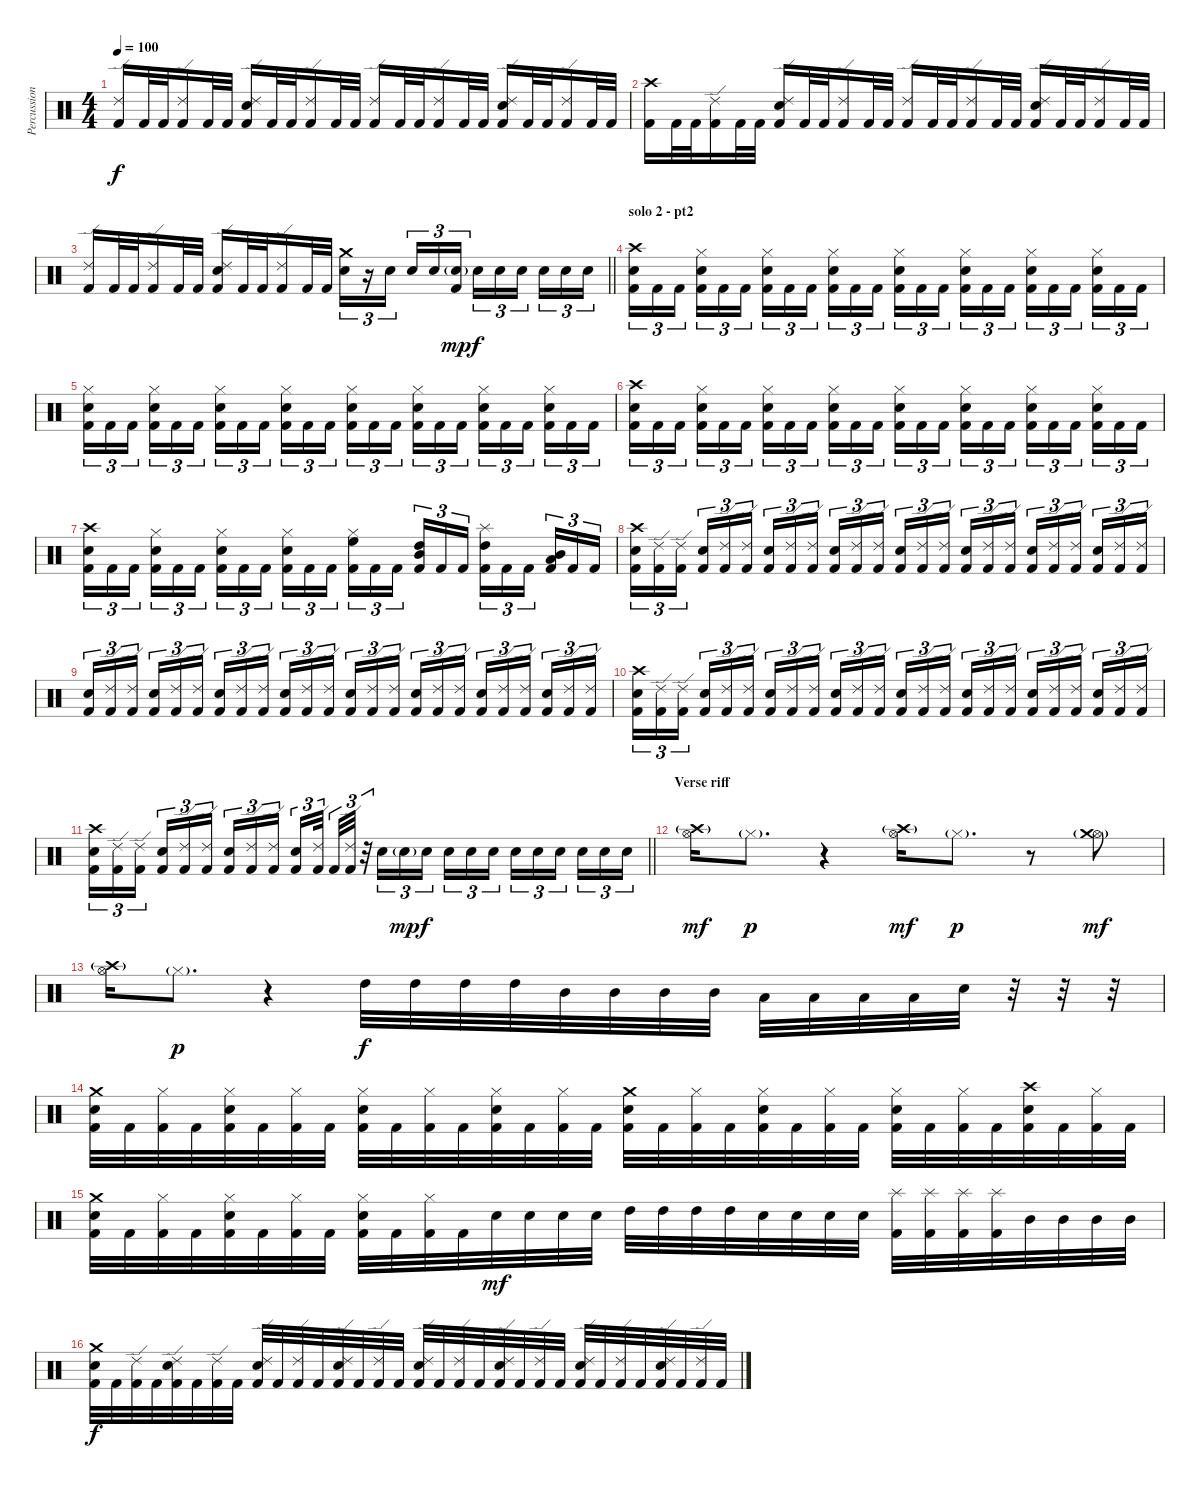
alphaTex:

\track ("Percussion" "Percussion") {instrument percussion}
\staff {score}
\articulation defaults
\ts (4 4)
\tempo 100
\clef neutral
\ks c
("Ride (edge) 2" "Kick (hit) 2").16{dy f} "Kick (hit) 2".32 "Kick (hit) 2".32 ("Ride (edge) 2" "Kick (hit) 2").16 "Kick (hit) 2".32 "Kick (hit) 2".32 ("Ride (edge) 2" "Electric Snare (hit)" "Kick (hit) 2").16 "Kick (hit) 2".32 "Kick (hit) 2".32 ("Ride (edge) 2" "Kick (hit) 2").16 "Kick (hit) 2".32 "Kick (hit) 2".32 ("Ride (edge) 2" "Kick (hit) 2").16 "Kick (hit) 2".32 "Kick (hit) 2".32 ("Ride (edge) 2" "Kick (hit) 2").16 "Kick (hit) 2".32 "Kick (hit) 2".32 ("Ride (edge) 2" "Electric Snare (hit)" "Kick (hit) 2").16 "Kick (hit) 2".32 "Kick (hit) 2".32 ("Ride (edge) 2" "Kick (hit) 2").16 "Kick (hit) 2".32 "Kick (hit) 2".32 |
("Crash high (hit)" "Kick (hit) 2").16 "Kick (hit) 2".32 "Kick (hit) 2".32 ("Ride (edge) 2" "Kick (hit) 2").16 "Kick (hit) 2".32 "Kick (hit) 2".32 ("Ride (edge) 2" "Electric Snare (hit)" "Kick (hit) 2").16 "Kick (hit) 2".32 "Kick (hit) 2".32 ("Ride (edge) 2" "Kick (hit) 2").16 "Kick (hit) 2".32 "Kick (hit) 2".32 ("Ride (edge) 2" "Kick (hit) 2").16 "Kick (hit) 2".32 "Kick (hit) 2".32 ("Ride (edge) 2" "Kick (hit) 2").16 "Kick (hit) 2".32 "Kick (hit) 2".32 ("Ride (edge) 2" "Electric Snare (hit)" "Kick (hit) 2").16 "Kick (hit) 2".32 "Kick (hit) 2".32 ("Ride (edge) 2" "Kick (hit) 2").16 "Kick (hit) 2".32 "Kick (hit) 2".32 |
\barLineRight lightlight
("Ride (edge) 2" "Kick (hit) 2").16 "Kick (hit) 2".32 "Kick (hit) 2".32 ("Ride (edge) 2" "Kick (hit) 2").16 "Kick (hit) 2".32 "Kick (hit) 2".32 ("Ride (edge) 2" "Electric Snare (hit)" "Kick (hit) 2").16 "Kick (hit) 2".32 "Kick (hit) 2".32 ("Ride (edge) 2" "Kick (hit) 2").16 "Kick (hit) 2".32 "Kick (hit) 2".32 ("Crash medium (hit)" "Electric Snare (hit)").16{tu (3 2)} r.16{tu (3 2)} "Electric Snare (hit)".16{tu (3 2) beam splitsecondary} "Electric Snare (hit)".16{tu (3 2)} "Electric Snare (hit)".16{tu (3 2)} ("Electric Snare (hit)"{g} "Kick (hit) 2").16{tu (3 2) dy mp} "Electric Snare (hit)".16{tu (3 2) dy f} "Electric Snare (hit)".16{tu (3 2)} "Electric Snare (hit)".16{tu (3 2) beam splitsecondary} "Electric Snare (hit)".16{tu (3 2)} "Electric Snare (hit)".16{tu (3 2)} "Electric Snare (hit)".16{tu (3 2)} |
\section ("" "solo 2 - pt2")
("Crash high (hit)" "Electric Snare (hit)" "Kick (hit) 2").16{tu (3 2)} "Kick (hit) 2".16{tu (3 2)} "Kick (hit) 2".16{tu (3 2) beam splitsecondary} ("Hi-Hat (closed)" "Electric Snare (hit)" "Kick (hit) 2").16{tu (3 2)} "Kick (hit) 2".16{tu (3 2)} "Kick (hit) 2".16{tu (3 2)} ("Hi-Hat (closed)" "Electric Snare (hit)" "Kick (hit) 2").16{tu (3 2)} "Kick (hit) 2".16{tu (3 2)} "Kick (hit) 2".16{tu (3 2) beam splitsecondary} ("Hi-Hat (closed)" "Electric Snare (hit)" "Kick (hit) 2").16{tu (3 2)} "Kick (hit) 2".16{tu (3 2)} "Kick (hit) 2".16{tu (3 2)} ("Hi-Hat (closed)" "Electric Snare (hit)" "Kick (hit) 2").16{tu (3 2)} "Kick (hit) 2".16{tu (3 2)} "Kick (hit) 2".16{tu (3 2) beam splitsecondary} ("Hi-Hat (closed)" "Electric Snare (hit)" "Kick (hit) 2").16{tu (3 2)} "Kick (hit) 2".16{tu (3 2)} "Kick (hit) 2".16{tu (3 2)} ("Hi-Hat (closed)" "Electric Snare (hit)" "Kick (hit) 2").16{tu (3 2)} "Kick (hit) 2".16{tu (3 2)} "Kick (hit) 2".16{tu (3 2) beam splitsecondary} ("Hi-Hat (closed)" "Electric Snare (hit)" "Kick (hit) 2").16{tu (3 2)} "Kick (hit) 2".16{tu (3 2)} "Kick (hit) 2".16{tu (3 2)} |
("Hi-Hat (closed)" "Electric Snare (hit)" "Kick (hit) 2").16{tu (3 2)} "Kick (hit) 2".16{tu (3 2)} "Kick (hit) 2".16{tu (3 2) beam splitsecondary} ("Hi-Hat (closed)" "Electric Snare (hit)" "Kick (hit) 2").16{tu (3 2)} "Kick (hit) 2".16{tu (3 2)} "Kick (hit) 2".16{tu (3 2)} ("Hi-Hat (closed)" "Electric Snare (hit)" "Kick (hit) 2").16{tu (3 2)} "Kick (hit) 2".16{tu (3 2)} "Kick (hit) 2".16{tu (3 2) beam splitsecondary} ("Hi-Hat (closed)" "Electric Snare (hit)" "Kick (hit) 2").16{tu (3 2)} "Kick (hit) 2".16{tu (3 2)} "Kick (hit) 2".16{tu (3 2)} ("Hi-Hat (closed)" "Electric Snare (hit)" "Kick (hit) 2").16{tu (3 2)} "Kick (hit) 2".16{tu (3 2)} "Kick (hit) 2".16{tu (3 2) beam splitsecondary} ("Hi-Hat (closed)" "Electric Snare (hit)" "Kick (hit) 2").16{tu (3 2)} "Kick (hit) 2".16{tu (3 2)} "Kick (hit) 2".16{tu (3 2)} ("Hi-Hat (closed)" "Electric Snare (hit)" "Kick (hit) 2").16{tu (3 2)} "Kick (hit) 2".16{tu (3 2)} "Kick (hit) 2".16{tu (3 2) beam splitsecondary} ("Hi-Hat (closed)" "Electric Snare (hit)" "Kick (hit) 2").16{tu (3 2)} "Kick (hit) 2".16{tu (3 2)} "Kick (hit) 2".16{tu (3 2)} |
("Crash high (hit)" "Electric Snare (hit)" "Kick (hit) 2").16{tu (3 2)} "Kick (hit) 2".16{tu (3 2)} "Kick (hit) 2".16{tu (3 2) beam splitsecondary} ("Hi-Hat (closed)" "Electric Snare (hit)" "Kick (hit) 2").16{tu (3 2)} "Kick (hit) 2".16{tu (3 2)} "Kick (hit) 2".16{tu (3 2)} ("Hi-Hat (closed)" "Electric Snare (hit)" "Kick (hit) 2").16{tu (3 2)} "Kick (hit) 2".16{tu (3 2)} "Kick (hit) 2".16{tu (3 2) beam splitsecondary} ("Hi-Hat (closed)" "Electric Snare (hit)" "Kick (hit) 2").16{tu (3 2)} "Kick (hit) 2".16{tu (3 2)} "Kick (hit) 2".16{tu (3 2)} ("Hi-Hat (closed)" "Electric Snare (hit)" "Kick (hit) 2").16{tu (3 2)} "Kick (hit) 2".16{tu (3 2)} "Kick (hit) 2".16{tu (3 2) beam splitsecondary} ("Hi-Hat (closed)" "Electric Snare (hit)" "Kick (hit) 2").16{tu (3 2)} "Kick (hit) 2".16{tu (3 2)} "Kick (hit) 2".16{tu (3 2)} ("Hi-Hat (closed)" "Electric Snare (hit)" "Kick (hit) 2").16{tu (3 2)} "Kick (hit) 2".16{tu (3 2)} "Kick (hit) 2".16{tu (3 2) beam splitsecondary} ("Hi-Hat (closed)" "Electric Snare (hit)" "Kick (hit) 2").16{tu (3 2)} "Kick (hit) 2".16{tu (3 2)} "Kick (hit) 2".16{tu (3 2)} |
("Crash high (hit)" "Electric Snare (hit)" "Kick (hit) 2").16{tu (3 2)} "Kick (hit) 2".16{tu (3 2)} "Kick (hit) 2".16{tu (3 2) beam splitsecondary} ("Hi-Hat (closed)" "Electric Snare (hit)" "Kick (hit) 2").16{tu (3 2)} "Kick (hit) 2".16{tu (3 2)} "Kick (hit) 2".16{tu (3 2)} ("Hi-Hat (closed)" "Electric Snare (hit)" "Kick (hit) 2").16{tu (3 2)} "Kick (hit) 2".16{tu (3 2)} "Kick (hit) 2".16{tu (3 2) beam splitsecondary} ("Hi-Hat (closed)" "Electric Snare (hit)" "Kick (hit) 2").16{tu (3 2)} "Kick (hit) 2".16{tu (3 2)} "Kick (hit) 2".16{tu (3 2)} ("Hi-Hat (closed)" "High Floor Tom (hit)" "Kick (hit) 2").16{tu (3 2)} "Kick (hit) 2".16{tu (3 2)} "Kick (hit) 2".16{tu (3 2) beam splitsecondary} ("High Tom (hit)" "Mid Tom (hit)" "Kick (hit) 2").16{tu (3 2)} "Kick (hit) 2".16{tu (3 2)} "Kick (hit) 2".16{tu (3 2)} ("Splash (hit)" "High Tom (hit)" "Kick (hit) 2").16{tu (3 2)} "Kick (hit) 2".16{tu (3 2)} "Kick (hit) 2".16{tu (3 2) beam splitsecondary} ("Low Tom (hit)" "Mid Tom (hit)" "Kick (hit) 2").16{tu (3 2)} "Kick (hit) 2".16{tu (3 2)} "Kick (hit) 2".16{tu (3 2)} |
("Crash high (hit)" "Electric Snare (hit)" "Kick (hit) 2").16{tu (3 2)} ("Ride (edge) 2" "Kick (hit) 2").16{tu (3 2)} ("Ride (edge) 2" "Kick (hit) 2").16{tu (3 2) beam splitsecondary} ("Electric Snare (hit)" "Kick (hit) 2").16{tu (3 2)} ("Ride (edge) 2" "Kick (hit) 2").16{tu (3 2)} ("Ride (edge) 2" "Kick (hit) 2").16{tu (3 2)} ("Electric Snare (hit)" "Kick (hit) 2").16{tu (3 2)} ("Ride (edge) 2" "Kick (hit) 2").16{tu (3 2)} ("Ride (edge) 2" "Kick (hit) 2").16{tu (3 2) beam splitsecondary} ("Electric Snare (hit)" "Kick (hit) 2").16{tu (3 2)} ("Ride (edge) 2" "Kick (hit) 2").16{tu (3 2)} ("Ride (edge) 2" "Kick (hit) 2").16{tu (3 2)} ("Electric Snare (hit)" "Kick (hit) 2").16{tu (3 2)} ("Ride (edge) 2" "Kick (hit) 2").16{tu (3 2)} ("Ride (edge) 2" "Kick (hit) 2").16{tu (3 2) beam splitsecondary} ("Electric Snare (hit)" "Kick (hit) 2").16{tu (3 2)} ("Ride (edge) 2" "Kick (hit) 2").16{tu (3 2)} ("Ride (edge) 2" "Kick (hit) 2").16{tu (3 2)} ("Electric Snare (hit)" "Kick (hit) 2").16{tu (3 2)} ("Ride (edge) 2" "Kick (hit) 2").16{tu (3 2)} ("Ride (edge) 2" "Kick (hit) 2").16{tu (3 2) beam splitsecondary} ("Electric Snare (hit)" "Kick (hit) 2").16{tu (3 2)} ("Ride (edge) 2" "Kick (hit) 2").16{tu (3 2)} ("Ride (edge) 2" "Kick (hit) 2").16{tu (3 2)} |
("Electric Snare (hit)" "Kick (hit) 2").16{tu (3 2)} ("Ride (edge) 2" "Kick (hit) 2").16{tu (3 2)} ("Ride (edge) 2" "Kick (hit) 2").16{tu (3 2) beam splitsecondary} ("Electric Snare (hit)" "Kick (hit) 2").16{tu (3 2)} ("Ride (edge) 2" "Kick (hit) 2").16{tu (3 2)} ("Ride (edge) 2" "Kick (hit) 2").16{tu (3 2)} ("Electric Snare (hit)" "Kick (hit) 2").16{tu (3 2)} ("Ride (edge) 2" "Kick (hit) 2").16{tu (3 2)} ("Ride (edge) 2" "Kick (hit) 2").16{tu (3 2) beam splitsecondary} ("Electric Snare (hit)" "Kick (hit) 2").16{tu (3 2)} ("Ride (edge) 2" "Kick (hit) 2").16{tu (3 2)} ("Ride (edge) 2" "Kick (hit) 2").16{tu (3 2)} ("Electric Snare (hit)" "Kick (hit) 2").16{tu (3 2)} ("Ride (edge) 2" "Kick (hit) 2").16{tu (3 2)} ("Ride (edge) 2" "Kick (hit) 2").16{tu (3 2) beam splitsecondary} ("Electric Snare (hit)" "Kick (hit) 2").16{tu (3 2)} ("Ride (edge) 2" "Kick (hit) 2").16{tu (3 2)} ("Ride (edge) 2" "Kick (hit) 2").16{tu (3 2)} ("Electric Snare (hit)" "Kick (hit) 2").16{tu (3 2)} ("Ride (edge) 2" "Kick (hit) 2").16{tu (3 2)} ("Ride (edge) 2" "Kick (hit) 2").16{tu (3 2) beam splitsecondary} ("Electric Snare (hit)" "Kick (hit) 2").16{tu (3 2)} ("Ride (edge) 2" "Kick (hit) 2").16{tu (3 2)} ("Ride (edge) 2" "Kick (hit) 2").16{tu (3 2)} |
("Crash high (hit)" "Electric Snare (hit)" "Kick (hit) 2").16{tu (3 2)} ("Ride (edge) 2" "Kick (hit) 2").16{tu (3 2)} ("Ride (edge) 2" "Kick (hit) 2").16{tu (3 2) beam splitsecondary} ("Electric Snare (hit)" "Kick (hit) 2").16{tu (3 2)} ("Ride (edge) 2" "Kick (hit) 2").16{tu (3 2)} ("Ride (edge) 2" "Kick (hit) 2").16{tu (3 2)} ("Electric Snare (hit)" "Kick (hit) 2").16{tu (3 2)} ("Ride (edge) 2" "Kick (hit) 2").16{tu (3 2)} ("Ride (edge) 2" "Kick (hit) 2").16{tu (3 2) beam splitsecondary} ("Electric Snare (hit)" "Kick (hit) 2").16{tu (3 2)} ("Ride (edge) 2" "Kick (hit) 2").16{tu (3 2)} ("Ride (edge) 2" "Kick (hit) 2").16{tu (3 2)} ("Electric Snare (hit)" "Kick (hit) 2").16{tu (3 2)} ("Ride (edge) 2" "Kick (hit) 2").16{tu (3 2)} ("Ride (edge) 2" "Kick (hit) 2").16{tu (3 2) beam splitsecondary} ("Electric Snare (hit)" "Kick (hit) 2").16{tu (3 2)} ("Ride (edge) 2" "Kick (hit) 2").16{tu (3 2)} ("Ride (edge) 2" "Kick (hit) 2").16{tu (3 2)} ("Electric Snare (hit)" "Kick (hit) 2").16{tu (3 2)} ("Ride (edge) 2" "Kick (hit) 2").16{tu (3 2)} ("Ride (edge) 2" "Kick (hit) 2").16{tu (3 2) beam splitsecondary} ("Electric Snare (hit)" "Kick (hit) 2").16{tu (3 2)} ("Ride (edge) 2" "Kick (hit) 2").16{tu (3 2)} ("Ride (edge) 2" "Kick (hit) 2").16{tu (3 2)} |
\barLineRight lightlight
("Crash high (hit)" "Electric Snare (hit)" "Kick (hit) 2").16{tu (3 2)} ("Ride (edge) 2" "Kick (hit) 2").16{tu (3 2)} ("Ride (edge) 2" "Kick (hit) 2").16{tu (3 2) beam splitsecondary} ("Electric Snare (hit)" "Kick (hit) 2").16{tu (3 2)} ("Ride (edge) 2" "Kick (hit) 2").16{tu (3 2)} ("Ride (edge) 2" "Kick (hit) 2").16{tu (3 2)} ("Electric Snare (hit)" "Kick (hit) 2").16{tu (3 2)} ("Ride (edge) 2" "Kick (hit) 2").16{tu (3 2)} ("Ride (edge) 2" "Kick (hit) 2").16{tu (3 2) beam splitsecondary} ("Electric Snare (hit)" "Kick (hit) 2").16{tu (3 2)} ("Ride (edge) 2" "Kick (hit) 2").32{tu (3 2) beam splitsecondary} "Kick (hit) 2".32{tu (3 2)} ("Ride (edge) 2" "Kick (hit) 2").32{tu (3 2)} r.32{tu (3 2)} "Electric Snare (hit)".16{tu (3 2)} "Electric Snare (hit)"{g}.16{tu (3 2) dy mp} "Electric Snare (hit)".16{tu (3 2) dy f beam splitsecondary} "Electric Snare (hit)".16{tu (3 2)} "Electric Snare (hit)".16{tu (3 2)} "Electric Snare (hit)".16{tu (3 2)} "Electric Snare (hit)".16{tu (3 2)} "Electric Snare (hit)".16{tu (3 2)} "Electric Snare (hit)".16{tu (3 2) beam splitsecondary} "Electric Snare (hit)".16{tu (3 2)} "Electric Snare (hit)".16{tu (3 2)} "Electric Snare (hit)".16{tu (3 2)} |
\section ("" "Verse riff")
("Crash high (hit)"{g} "Hi-Hat (open)").16{dy mf} "Hi-Hat (closed)"{g}.8{d dy p} r.4 ("Crash high (hit)"{g} "Hi-Hat (open)").16{dy mf} "Hi-Hat (closed)"{g}.8{d dy p} r.8 ("Hi-Hat (open)" "Crash medium (hit)"{g}).8{dy mf} |
("Crash high (hit)"{g} "Hi-Hat (open)").16 "Hi-Hat (closed)"{g}.8{d dy p} r.4 "High Tom (hit)".32{dy f} "High Tom (hit)".32 "High Tom (hit)".32 "High Tom (hit)".32 "Mid Tom (hit)".32 "Mid Tom (hit)".32 "Mid Tom (hit)".32 "Mid Tom (hit)".32 "Low Tom (hit)".32 "Low Tom (hit)".32 "Low Tom (hit)".32 "Low Tom (hit)".32 "Electric Snare (hit)".32 r.32 r.32 r.32 |
("Crash medium (hit)" "Electric Snare (hit)" "Kick (hit) 2").32 "Kick (hit) 2".32 ("Hi-Hat (closed)" "Kick (hit) 2").32 "Kick (hit) 2".32 ("Hi-Hat (closed)" "Electric Snare (hit)" "Kick (hit) 2").32 "Kick (hit) 2".32 ("Hi-Hat (closed)" "Kick (hit) 2").32 "Kick (hit) 2".32 ("Hi-Hat (closed)" "Electric Snare (hit)" "Kick (hit) 2").32 "Kick (hit) 2".32 ("Hi-Hat (closed)" "Kick (hit) 2").32 "Kick (hit) 2".32 ("Hi-Hat (closed)" "Electric Snare (hit)" "Kick (hit) 2").32 "Kick (hit) 2".32 ("Hi-Hat (closed)" "Kick (hit) 2").32 "Kick (hit) 2".32 ("Crash medium (hit)" "Electric Snare (hit)" "Kick (hit) 2").32 "Kick (hit) 2".32 ("Hi-Hat (closed)" "Kick (hit) 2").32 "Kick (hit) 2".32 ("Hi-Hat (closed)" "Electric Snare (hit)" "Kick (hit) 2").32 "Kick (hit) 2".32 ("Hi-Hat (closed)" "Kick (hit) 2").32 "Kick (hit) 2".32 ("Hi-Hat (closed)" "Electric Snare (hit)" "Kick (hit) 2").32 "Kick (hit) 2".32 ("Hi-Hat (closed)" "Kick (hit) 2").32 "Kick (hit) 2".32 ("Crash high (hit)" "Electric Snare (hit)" "Kick (hit) 2").32 "Kick (hit) 2".32 ("Hi-Hat (closed)" "Kick (hit) 2").32 "Kick (hit) 2".32 |
("Crash medium (hit)" "Electric Snare (hit)" "Kick (hit) 2").32 "Kick (hit) 2".32 ("Hi-Hat (closed)" "Kick (hit) 2").32 "Kick (hit) 2".32 ("Hi-Hat (closed)" "Electric Snare (hit)" "Kick (hit) 2").32 "Kick (hit) 2".32 ("Hi-Hat (closed)" "Kick (hit) 2").32 "Kick (hit) 2".32 ("Hi-Hat (closed)" "Electric Snare (hit)" "Kick (hit) 2").32 "Kick (hit) 2".32 ("Hi-Hat (closed)" "Kick (hit) 2").32 "Kick (hit) 2".32 "Electric Snare (hit)".32{dy mf} "Electric Snare (hit)".32 "Electric Snare (hit)".32 "Electric Snare (hit)".32 "High Tom (hit)".32 "High Tom (hit)".32 "High Tom (hit)".32 "High Tom (hit)".32 "Electric Snare (hit)".32 "Electric Snare (hit)".32 "Electric Snare (hit)".32 "Electric Snare (hit)".32 ("Splash (hit)" "Kick (hit) 2").32 ("Splash (hit)" "Kick (hit) 2").32 ("Splash (hit)" "Kick (hit) 2").32 ("Splash (hit)" "Kick (hit) 2").32 "Mid Tom (hit)".32 "Mid Tom (hit)".32 "Mid Tom (hit)".32 "Mid Tom (hit)".32 |
("Crash medium (hit)" "Electric Snare (hit)" "Kick (hit) 2").32{dy f} "Kick (hit) 2".32 ("Ride (edge) 2" "Kick (hit) 2").32 "Kick (hit) 2".32 ("Ride (edge) 2" "Electric Snare (hit)" "Kick (hit) 2").32 "Kick (hit) 2".32 ("Ride (edge) 2" "Kick (hit) 2").32 "Kick (hit) 2".32 ("Ride (edge) 2" "Electric Snare (hit)" "Kick (hit) 2").32 "Kick (hit) 2".32 ("Ride (edge) 2" "Kick (hit) 2").32 "Kick (hit) 2".32 ("Ride (edge) 2" "Electric Snare (hit)" "Kick (hit) 2").32 "Kick (hit) 2".32 ("Ride (edge) 2" "Kick (hit) 2").32 "Kick (hit) 2".32 ("Ride (edge) 2" "Electric Snare (hit)" "Kick (hit) 2").32 "Kick (hit) 2".32 ("Ride (edge) 2" "Kick (hit) 2").32 "Kick (hit) 2".32 ("Ride (edge) 2" "Electric Snare (hit)" "Kick (hit) 2").32 "Kick (hit) 2".32 ("Ride (edge) 2" "Kick (hit) 2").32 "Kick (hit) 2".32 ("Ride (edge) 2" "Electric Snare (hit)" "Kick (hit) 2").32 "Kick (hit) 2".32 ("Ride (edge) 2" "Kick (hit) 2").32 "Kick (hit) 2".32 ("Ride (edge) 2" "Electric Snare (hit)" "Kick (hit) 2").32 "Kick (hit) 2".32 ("Ride (edge) 2" "Kick (hit) 2").32 "Kick (hit) 2".32
